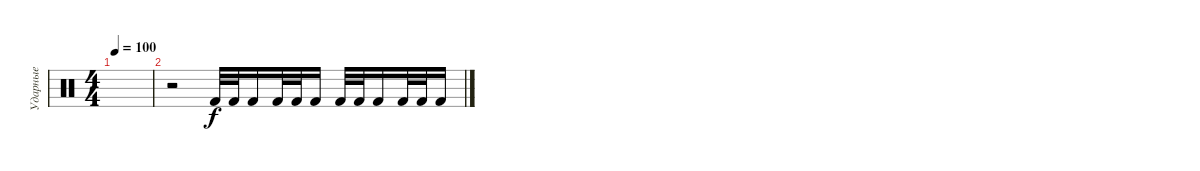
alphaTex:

\track ("Ударные" "Ударные") {instrument percussion}
\staff {score}
\articulation defaults
\ts (4 4)
\tempo 100
\clef neutral
\ks c
|
r.2 "Kick (hit) 2".32 "Kick (hit) 2".32 "Kick (hit) 2".16 "Kick (hit) 2".32 "Kick (hit) 2".32 "Kick (hit) 2".16 "Kick (hit) 2".32 "Kick (hit) 2".32 "Kick (hit) 2".16 "Kick (hit) 2".32 "Kick (hit) 2".32 "Kick (hit) 2".16
